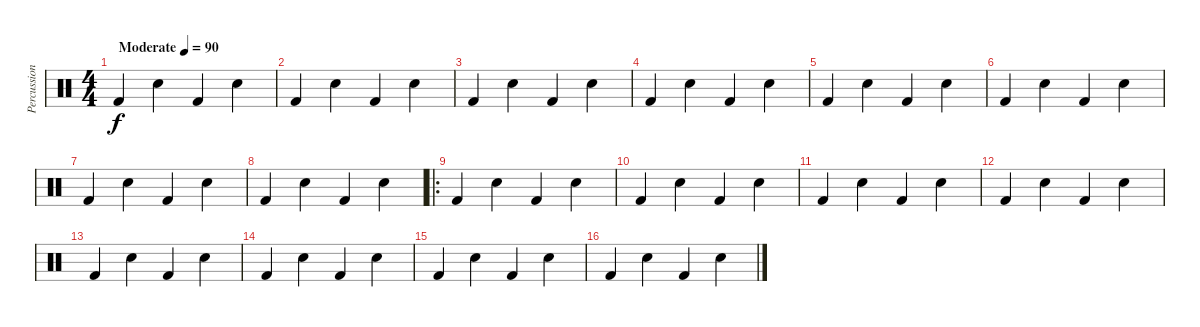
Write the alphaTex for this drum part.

\track ("Percussion" "Percussion") {instrument percussion}
\staff {score}
\articulation defaults
\ts (4 4)
\tempo (90 "Moderate")
\clef neutral
\ks c "Kick (hit) 2".4{dy f} "Electric Snare (hit)".4 "Kick (hit) 2".4 "Electric Snare (hit)".4
|
"Kick (hit) 2".4 "Electric Snare (hit)".4 "Kick (hit) 2".4 "Electric Snare (hit)".4 |
"Kick (hit) 2".4 "Electric Snare (hit)".4 "Kick (hit) 2".4 "Electric Snare (hit)".4 |
"Kick (hit) 2".4 "Electric Snare (hit)".4 "Kick (hit) 2".4 "Electric Snare (hit)".4 |
"Kick (hit) 2".4 "Electric Snare (hit)".4 "Kick (hit) 2".4 "Electric Snare (hit)".4 |
"Kick (hit) 2".4 "Electric Snare (hit)".4 "Kick (hit) 2".4 "Electric Snare (hit)".4 |
"Kick (hit) 2".4 "Electric Snare (hit)".4 "Kick (hit) 2".4 "Electric Snare (hit)".4 |
"Kick (hit) 2".4 "Electric Snare (hit)".4 "Kick (hit) 2".4 "Electric Snare (hit)".4 |
\ro "Kick (hit) 2".4 "Electric Snare (hit)".4 "Kick (hit) 2".4 "Electric Snare (hit)".4
|
"Kick (hit) 2".4 "Electric Snare (hit)".4 "Kick (hit) 2".4 "Electric Snare (hit)".4 |
"Kick (hit) 2".4 "Electric Snare (hit)".4 "Kick (hit) 2".4 "Electric Snare (hit)".4 |
"Kick (hit) 2".4 "Electric Snare (hit)".4 "Kick (hit) 2".4 "Electric Snare (hit)".4 |
"Kick (hit) 2".4 "Electric Snare (hit)".4 "Kick (hit) 2".4 "Electric Snare (hit)".4 |
"Kick (hit) 2".4 "Electric Snare (hit)".4 "Kick (hit) 2".4 "Electric Snare (hit)".4 |
"Kick (hit) 2".4 "Electric Snare (hit)".4 "Kick (hit) 2".4 "Electric Snare (hit)".4 |
"Kick (hit) 2".4 "Electric Snare (hit)".4 "Kick (hit) 2".4 "Electric Snare (hit)".4
